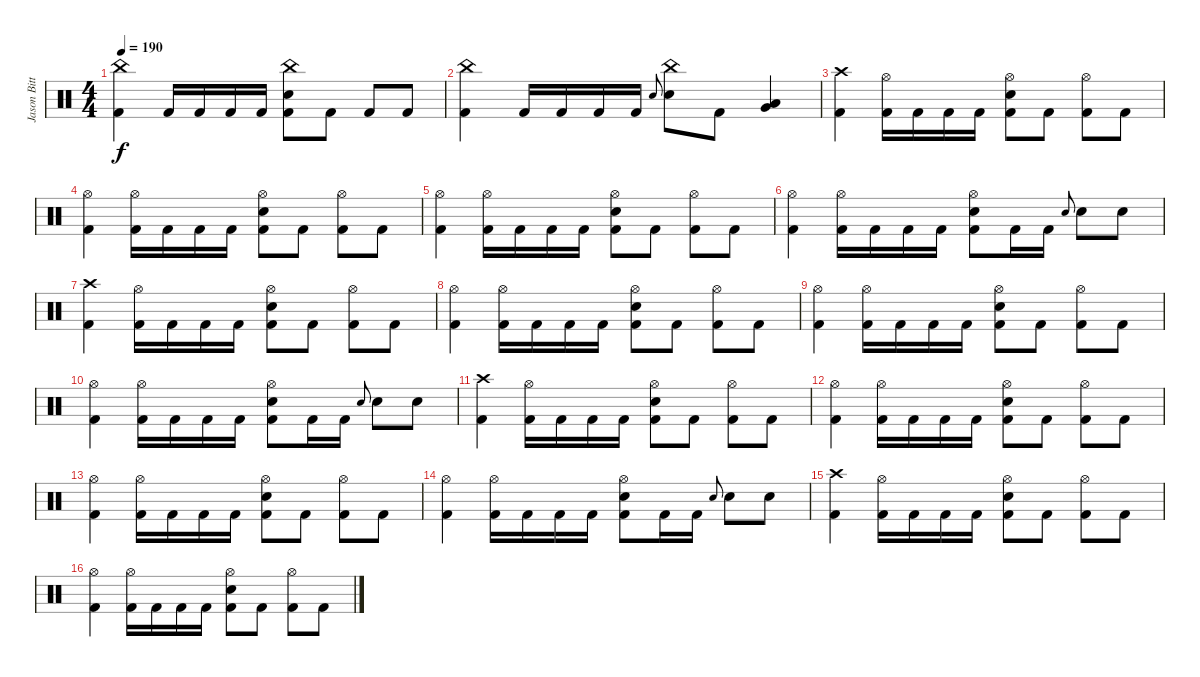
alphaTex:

\track ("Jason Bittner" "Jason Bitt") {instrument percussion}
\staff {score}
\articulation defaults
\ts (4 4)
\tempo 190
\clef neutral
\ks c
("China (hit)" "Kick (hit) 2").4{dy f} "Kick (hit) 2".16 "Kick (hit) 2".16 "Kick (hit) 2".16 "Kick (hit) 2".16 ("China (hit)" "Electric Snare (hit)" "Kick (hit) 2").8 "Kick (hit) 2".8 "Kick (hit) 2".8 "Kick (hit) 2".8 |
("China (hit)" "Kick (hit) 2").4 "Kick (hit) 2".16 "Kick (hit) 2".16 "Kick (hit) 2".16 "Kick (hit) 2".16 "Electric Snare (hit)".8{gr onbeat} ("China (hit)" "Electric Snare (hit)").8 "Kick (hit) 2".8 ("Very Low Tom (hit)" "Low Floor Tom (hit)").4 |
("Crash high (hit)" "Kick (hit) 2").4 ("Hi-Hat (open)" "Kick (hit) 2").16 "Kick (hit) 2".16 "Kick (hit) 2".16 "Kick (hit) 2".16 ("Hi-Hat (open)" "Electric Snare (hit)" "Kick (hit) 2").8 "Kick (hit) 2".8 ("Hi-Hat (open)" "Kick (hit) 2").8 "Kick (hit) 2".8 |
("Hi-Hat (open)" "Kick (hit) 2").4 ("Hi-Hat (open)" "Kick (hit) 2").16 "Kick (hit) 2".16 "Kick (hit) 2".16 "Kick (hit) 2".16 ("Hi-Hat (open)" "Electric Snare (hit)" "Kick (hit) 2").8 "Kick (hit) 2".8 ("Hi-Hat (open)" "Kick (hit) 2").8 "Kick (hit) 2".8 |
("Hi-Hat (open)" "Kick (hit) 2").4 ("Hi-Hat (open)" "Kick (hit) 2").16 "Kick (hit) 2".16 "Kick (hit) 2".16 "Kick (hit) 2".16 ("Hi-Hat (open)" "Electric Snare (hit)" "Kick (hit) 2").8 "Kick (hit) 2".8 ("Hi-Hat (open)" "Kick (hit) 2").8 "Kick (hit) 2".8 |
("Hi-Hat (open)" "Kick (hit) 2").4 ("Hi-Hat (open)" "Kick (hit) 2").16 "Kick (hit) 2".16 "Kick (hit) 2".16 "Kick (hit) 2".16 ("Hi-Hat (open)" "Electric Snare (hit)" "Kick (hit) 2").8 "Kick (hit) 2".16 "Kick (hit) 2".16 "Electric Snare (hit)".8{gr onbeat} "Electric Snare (hit)".8 "Electric Snare (hit)".8 |
("Crash high (hit)" "Kick (hit) 2").4 ("Hi-Hat (open)" "Kick (hit) 2").16 "Kick (hit) 2".16 "Kick (hit) 2".16 "Kick (hit) 2".16 ("Hi-Hat (open)" "Electric Snare (hit)" "Kick (hit) 2").8 "Kick (hit) 2".8 ("Hi-Hat (open)" "Kick (hit) 2").8 "Kick (hit) 2".8 |
("Hi-Hat (open)" "Kick (hit) 2").4 ("Hi-Hat (open)" "Kick (hit) 2").16 "Kick (hit) 2".16 "Kick (hit) 2".16 "Kick (hit) 2".16 ("Hi-Hat (open)" "Electric Snare (hit)" "Kick (hit) 2").8 "Kick (hit) 2".8 ("Hi-Hat (open)" "Kick (hit) 2").8 "Kick (hit) 2".8 |
("Hi-Hat (open)" "Kick (hit) 2").4 ("Hi-Hat (open)" "Kick (hit) 2").16 "Kick (hit) 2".16 "Kick (hit) 2".16 "Kick (hit) 2".16 ("Hi-Hat (open)" "Electric Snare (hit)" "Kick (hit) 2").8 "Kick (hit) 2".8 ("Hi-Hat (open)" "Kick (hit) 2").8 "Kick (hit) 2".8 |
("Hi-Hat (open)" "Kick (hit) 2").4 ("Hi-Hat (open)" "Kick (hit) 2").16 "Kick (hit) 2".16 "Kick (hit) 2".16 "Kick (hit) 2".16 ("Hi-Hat (open)" "Electric Snare (hit)" "Kick (hit) 2").8 "Kick (hit) 2".16 "Kick (hit) 2".16 "Electric Snare (hit)".8{gr onbeat} "Electric Snare (hit)".8 "Electric Snare (hit)".8 |
("Crash high (hit)" "Kick (hit) 2").4 ("Hi-Hat (open)" "Kick (hit) 2").16 "Kick (hit) 2".16 "Kick (hit) 2".16 "Kick (hit) 2".16 ("Hi-Hat (open)" "Electric Snare (hit)" "Kick (hit) 2").8 "Kick (hit) 2".8 ("Hi-Hat (open)" "Kick (hit) 2").8 "Kick (hit) 2".8 |
("Hi-Hat (open)" "Kick (hit) 2").4 ("Hi-Hat (open)" "Kick (hit) 2").16 "Kick (hit) 2".16 "Kick (hit) 2".16 "Kick (hit) 2".16 ("Hi-Hat (open)" "Electric Snare (hit)" "Kick (hit) 2").8 "Kick (hit) 2".8 ("Hi-Hat (open)" "Kick (hit) 2").8 "Kick (hit) 2".8 |
("Hi-Hat (open)" "Kick (hit) 2").4 ("Hi-Hat (open)" "Kick (hit) 2").16 "Kick (hit) 2".16 "Kick (hit) 2".16 "Kick (hit) 2".16 ("Hi-Hat (open)" "Electric Snare (hit)" "Kick (hit) 2").8 "Kick (hit) 2".8 ("Hi-Hat (open)" "Kick (hit) 2").8 "Kick (hit) 2".8 |
("Hi-Hat (open)" "Kick (hit) 2").4 ("Hi-Hat (open)" "Kick (hit) 2").16 "Kick (hit) 2".16 "Kick (hit) 2".16 "Kick (hit) 2".16 ("Hi-Hat (open)" "Electric Snare (hit)" "Kick (hit) 2").8 "Kick (hit) 2".16 "Kick (hit) 2".16 "Electric Snare (hit)".8{gr onbeat} "Electric Snare (hit)".8 "Electric Snare (hit)".8 |
("Crash high (hit)" "Kick (hit) 2").4 ("Hi-Hat (open)" "Kick (hit) 2").16 "Kick (hit) 2".16 "Kick (hit) 2".16 "Kick (hit) 2".16 ("Hi-Hat (open)" "Electric Snare (hit)" "Kick (hit) 2").8 "Kick (hit) 2".8 ("Hi-Hat (open)" "Kick (hit) 2").8 "Kick (hit) 2".8 |
("Hi-Hat (open)" "Kick (hit) 2").4 ("Hi-Hat (open)" "Kick (hit) 2").16 "Kick (hit) 2".16 "Kick (hit) 2".16 "Kick (hit) 2".16 ("Hi-Hat (open)" "Electric Snare (hit)" "Kick (hit) 2").8 "Kick (hit) 2".8 ("Hi-Hat (open)" "Kick (hit) 2").8 "Kick (hit) 2".8
